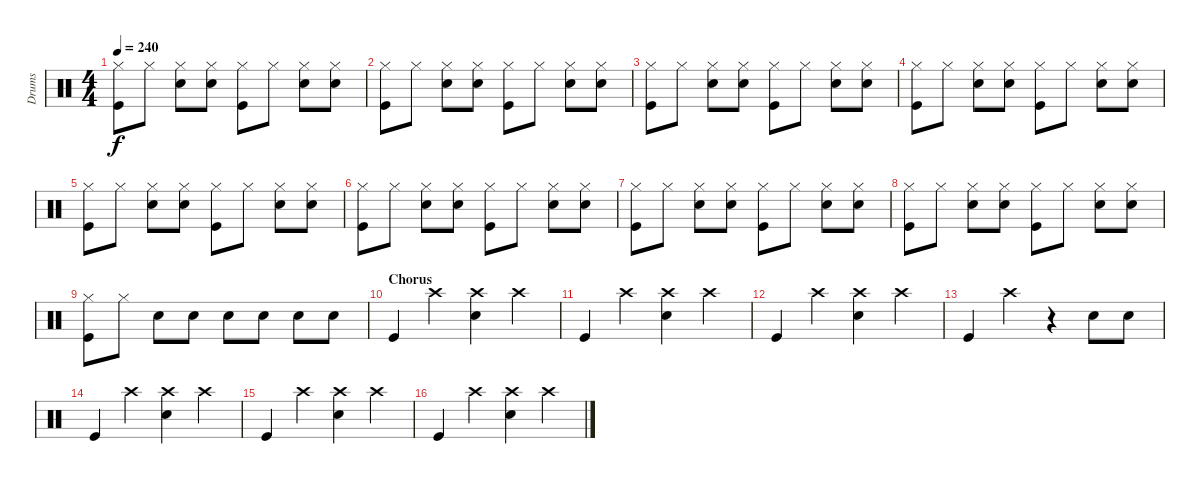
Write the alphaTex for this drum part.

\track ("Drums" "Drums") {instrument percussion}
\staff {score}
\articulation defaults
\ts (4 4)
\tempo 240
\clef neutral
\ks c
("Kick (hit)" "Hi-Hat (closed)").8{dy f} "Hi-Hat (closed)".8 ("Snare (hit) 2" "Hi-Hat (closed)").8 ("Snare (hit) 2" "Hi-Hat (closed)").8 ("Kick (hit)" "Hi-Hat (closed)").8 "Hi-Hat (closed)".8 ("Snare (hit) 2" "Hi-Hat (closed)").8 ("Snare (hit) 2" "Hi-Hat (closed)").8 |
("Kick (hit)" "Hi-Hat (closed)").8 "Hi-Hat (closed)".8 ("Snare (hit) 2" "Hi-Hat (closed)").8 ("Snare (hit) 2" "Hi-Hat (closed)").8 ("Kick (hit)" "Hi-Hat (closed)").8 "Hi-Hat (closed)".8 ("Snare (hit) 2" "Hi-Hat (closed)").8 ("Snare (hit) 2" "Hi-Hat (closed)").8 |
("Kick (hit)" "Hi-Hat (closed)").8 "Hi-Hat (closed)".8 ("Snare (hit) 2" "Hi-Hat (closed)").8 ("Snare (hit) 2" "Hi-Hat (closed)").8 ("Kick (hit)" "Hi-Hat (closed)").8 "Hi-Hat (closed)".8 ("Snare (hit) 2" "Hi-Hat (closed)").8 ("Snare (hit) 2" "Hi-Hat (closed)").8 |
("Kick (hit)" "Hi-Hat (closed)").8 "Hi-Hat (closed)".8 ("Snare (hit) 2" "Hi-Hat (closed)").8 ("Snare (hit) 2" "Hi-Hat (closed)").8 ("Kick (hit)" "Hi-Hat (closed)").8 "Hi-Hat (closed)".8 ("Snare (hit) 2" "Hi-Hat (closed)").8 ("Snare (hit) 2" "Hi-Hat (closed)").8 |
("Kick (hit)" "Hi-Hat (closed)").8 "Hi-Hat (closed)".8 ("Snare (hit) 2" "Hi-Hat (closed)").8 ("Snare (hit) 2" "Hi-Hat (closed)").8 ("Kick (hit)" "Hi-Hat (closed)").8 "Hi-Hat (closed)".8 ("Snare (hit) 2" "Hi-Hat (closed)").8 ("Snare (hit) 2" "Hi-Hat (closed)").8 |
("Kick (hit)" "Hi-Hat (closed)").8 "Hi-Hat (closed)".8 ("Snare (hit) 2" "Hi-Hat (closed)").8 ("Snare (hit) 2" "Hi-Hat (closed)").8 ("Kick (hit)" "Hi-Hat (closed)").8 "Hi-Hat (closed)".8 ("Snare (hit) 2" "Hi-Hat (closed)").8 ("Snare (hit) 2" "Hi-Hat (closed)").8 |
("Kick (hit)" "Hi-Hat (closed)").8 "Hi-Hat (closed)".8 ("Snare (hit) 2" "Hi-Hat (closed)").8 ("Snare (hit) 2" "Hi-Hat (closed)").8 ("Kick (hit)" "Hi-Hat (closed)").8 "Hi-Hat (closed)".8 ("Snare (hit) 2" "Hi-Hat (closed)").8 ("Snare (hit) 2" "Hi-Hat (closed)").8 |
("Kick (hit)" "Hi-Hat (closed)").8 "Hi-Hat (closed)".8 ("Snare (hit) 2" "Hi-Hat (closed)").8 ("Snare (hit) 2" "Hi-Hat (closed)").8 ("Kick (hit)" "Hi-Hat (closed)").8 "Hi-Hat (closed)".8 ("Snare (hit) 2" "Hi-Hat (closed)").8 ("Snare (hit) 2" "Hi-Hat (closed)").8 |
("Kick (hit)" "Hi-Hat (closed)").8 "Hi-Hat (closed)".8 "Snare (hit) 2".8 "Snare (hit) 2".8 "Snare (hit) 2".8 "Snare (hit) 2".8 "Snare (hit) 2".8 "Snare (hit) 2".8 |
\section ("" "Chorus")
"Kick (hit)".4 "Crash high (hit)".4 ("Snare (hit) 2" "Crash high (hit)").4 "Crash high (hit)".4 |
"Kick (hit)".4 "Crash high (hit)".4 ("Snare (hit) 2" "Crash high (hit)").4 "Crash high (hit)".4 |
"Kick (hit)".4 "Crash high (hit)".4 ("Snare (hit) 2" "Crash high (hit)").4 "Crash high (hit)".4 |
"Kick (hit)".4 "Crash high (hit)".4 r.4 "Snare (hit) 2".8 "Snare (hit) 2".8 |
"Kick (hit)".4 "Crash high (hit)".4 ("Snare (hit) 2" "Crash high (hit)").4 "Crash high (hit)".4 |
"Kick (hit)".4 "Crash high (hit)".4 ("Snare (hit) 2" "Crash high (hit)").4 "Crash high (hit)".4 |
"Kick (hit)".4 "Crash high (hit)".4 ("Snare (hit) 2" "Crash high (hit)").4 "Crash high (hit)".4
